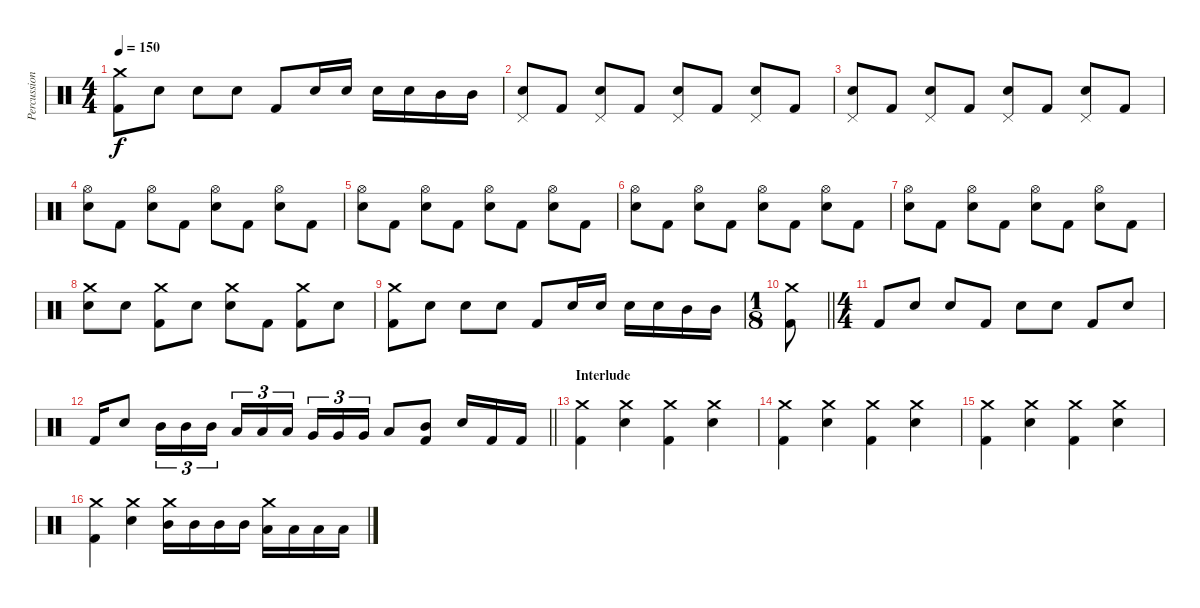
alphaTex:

\track ("Percussion" "Percussion") {instrument percussion}
\staff {score}
\articulation defaults
\ts (4 4)
\tempo 150
\clef neutral
\ks c
("Crash medium (hit)" "Kick (hit) 2").8{dy f} "Electric Snare (hit)".8 "Electric Snare (hit)".8 "Electric Snare (hit)".8 "Kick (hit) 2".8 "Electric Snare (hit)".16 "Electric Snare (hit)".16 "Electric Snare (hit)".16 "Electric Snare (hit)".16 "Mid Tom (hit)".16 "Mid Tom (hit)".16 |
("Pedal Hi-Hat (hit)" "Electric Snare (hit)").8 "Kick (hit) 2".8 ("Pedal Hi-Hat (hit)" "Electric Snare (hit)").8 "Kick (hit) 2".8 ("Pedal Hi-Hat (hit)" "Electric Snare (hit)").8 "Kick (hit) 2".8 ("Pedal Hi-Hat (hit)" "Electric Snare (hit)").8 "Kick (hit) 2".8 |
("Pedal Hi-Hat (hit)" "Electric Snare (hit)").8 "Kick (hit) 2".8 ("Pedal Hi-Hat (hit)" "Electric Snare (hit)").8 "Kick (hit) 2".8 ("Pedal Hi-Hat (hit)" "Electric Snare (hit)").8 "Kick (hit) 2".8 ("Pedal Hi-Hat (hit)" "Electric Snare (hit)").8 "Kick (hit) 2".8 |
("Hi-Hat (open)" "Electric Snare (hit)").8 "Kick (hit) 2".8 ("Hi-Hat (open)" "Electric Snare (hit)").8 "Kick (hit) 2".8 ("Hi-Hat (open)" "Electric Snare (hit)").8 "Kick (hit) 2".8 ("Hi-Hat (open)" "Electric Snare (hit)").8 "Kick (hit) 2".8 |
("Hi-Hat (open)" "Electric Snare (hit)").8 "Kick (hit) 2".8 ("Hi-Hat (open)" "Electric Snare (hit)").8 "Kick (hit) 2".8 ("Hi-Hat (open)" "Electric Snare (hit)").8 "Kick (hit) 2".8 ("Hi-Hat (open)" "Electric Snare (hit)").8 "Kick (hit) 2".8 |
("Hi-Hat (open)" "Electric Snare (hit)").8 "Kick (hit) 2".8 ("Hi-Hat (open)" "Electric Snare (hit)").8 "Kick (hit) 2".8 ("Hi-Hat (open)" "Electric Snare (hit)").8 "Kick (hit) 2".8 ("Hi-Hat (open)" "Electric Snare (hit)").8 "Kick (hit) 2".8 |
("Hi-Hat (open)" "Electric Snare (hit)").8 "Kick (hit) 2".8 ("Hi-Hat (open)" "Electric Snare (hit)").8 "Kick (hit) 2".8 ("Hi-Hat (open)" "Electric Snare (hit)").8 "Kick (hit) 2".8 ("Hi-Hat (open)" "Electric Snare (hit)").8 "Kick (hit) 2".8 |
("Crash medium (hit)" "Electric Snare (hit)").8 "Electric Snare (hit)".8 ("Crash medium (hit)" "Kick (hit) 2").8 "Electric Snare (hit)".8 ("Crash medium (hit)" "Electric Snare (hit)").8 "Kick (hit) 2".8 ("Crash medium (hit)" "Kick (hit) 2").8 "Electric Snare (hit)".8 |
("Crash medium (hit)" "Kick (hit) 2").8 "Electric Snare (hit)".8 "Electric Snare (hit)".8 "Electric Snare (hit)".8 "Kick (hit) 2".8 "Electric Snare (hit)".16 "Electric Snare (hit)".16 "Electric Snare (hit)".16 "Electric Snare (hit)".16 "Mid Tom (hit)".16 "Mid Tom (hit)".16 |
\ts (1 8)
\barLineRight lightlight
("Crash medium (hit)" "Kick (hit) 2").8 |
\ts (4 4)
"Kick (hit) 2".8 "Electric Snare (hit)".8 "Electric Snare (hit)".8 "Kick (hit) 2".8 "Electric Snare (hit)".8 "Electric Snare (hit)".8 "Kick (hit) 2".8 "Electric Snare (hit)".8 |
\barLineRight lightlight "Kick (hit) 2".16 "Electric Snare (hit)".8 "Mid Tom (hit)".16{tu (3 2)} "Mid Tom (hit)".16{tu (3 2)} "Mid Tom (hit)".16{tu (3 2) beam splitsecondary} "Low Tom (hit)".16{tu (3 2)} "Low Tom (hit)".16{tu (3 2)} "Low Tom (hit)".16{tu (3 2) beam splitsecondary} "Very Low Tom (hit)".16{tu (3 2)} "Very Low Tom (hit)".16{tu (3 2)} "Very Low Tom (hit)".16{tu (3 2)} "Low Floor Tom (hit)".8
("Mid Tom (hit)" "Kick (hit) 2").8 "Electric Snare (hit)".16 "Kick (hit) 2".16 "Kick (hit) 2".16 |
\section ("" "Interlude")
("Crash medium (hit)" "Kick (hit) 2").4 ("Crash medium (hit)" "Electric Snare (hit)").4 ("Crash medium (hit)" "Kick (hit) 2").4 ("Crash medium (hit)" "Electric Snare (hit)").4 |
("Crash medium (hit)" "Kick (hit) 2").4 ("Crash medium (hit)" "Electric Snare (hit)").4 ("Crash medium (hit)" "Kick (hit) 2").4 ("Crash medium (hit)" "Electric Snare (hit)").4 |
("Crash medium (hit)" "Kick (hit) 2").4 ("Crash medium (hit)" "Electric Snare (hit)").4 ("Crash medium (hit)" "Kick (hit) 2").4 ("Crash medium (hit)" "Electric Snare (hit)").4 |
("Crash medium (hit)" "Kick (hit) 2").4 ("Crash medium (hit)" "Electric Snare (hit)").4 ("Crash medium (hit)" "Mid Tom (hit)").16 "Mid Tom (hit)".16 "Mid Tom (hit)".16 "Mid Tom (hit)".16 ("Crash medium (hit)" "Low Tom (hit)").16 "Low Tom (hit)".16 "Low Tom (hit)".16 "Low Tom (hit)".16
